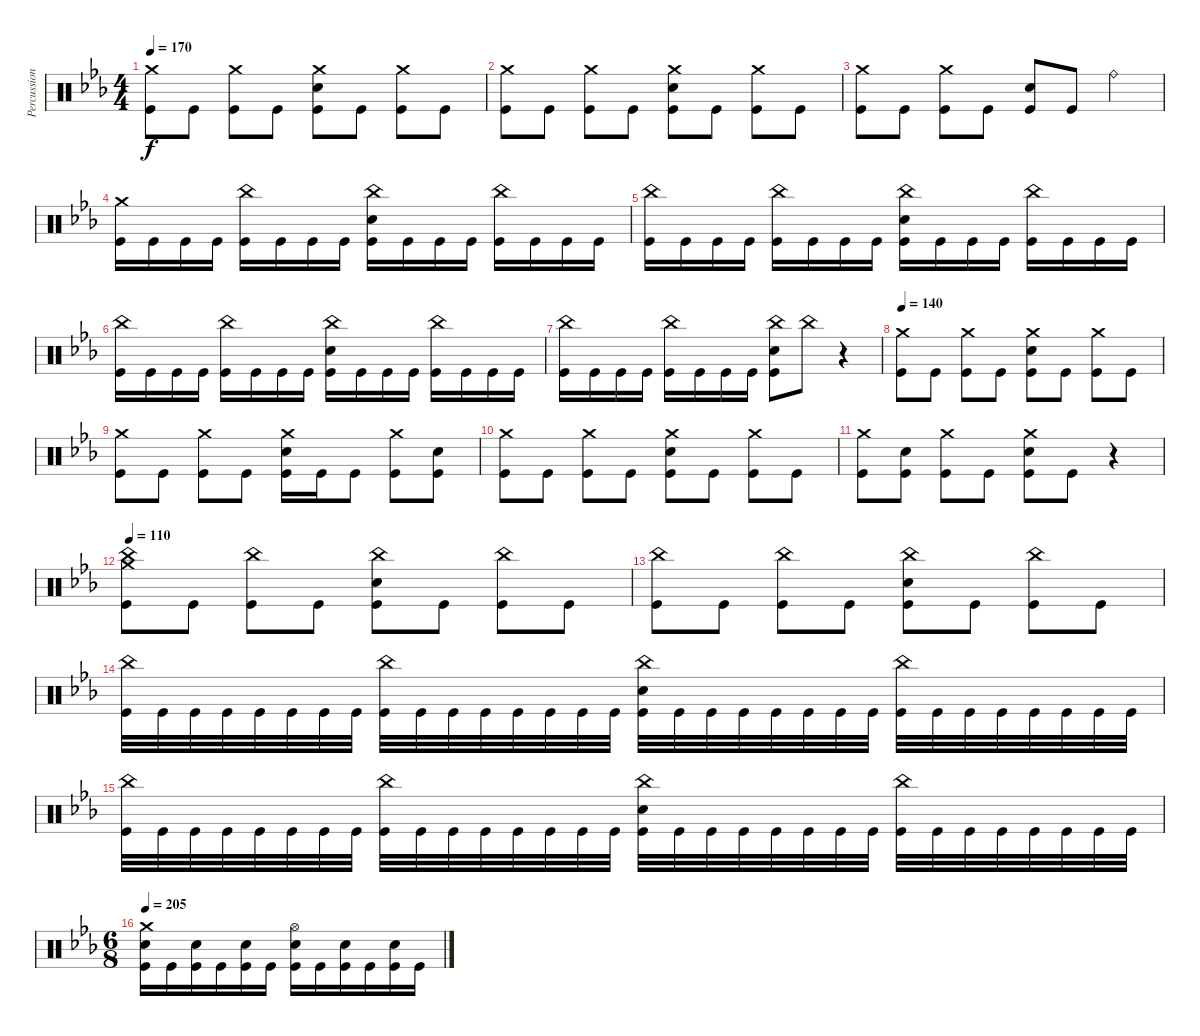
\track ("Percussion" "Percussion") {instrument percussion}
\staff {score}
\articulation defaults
\ts (4 4)
\tempo 170
\clef neutral
\ks eb
("Crash medium (hit)" "Kick (hit)").8{dy f} "Kick (hit)".8 ("Crash medium (hit)" "Kick (hit)").8 "Kick (hit)".8 ("Crash medium (hit)" "Electric Snare (hit)" "Kick (hit)").8 "Kick (hit)".8 ("Crash medium (hit)" "Kick (hit)").8 "Kick (hit)".8 |
("Crash medium (hit)" "Kick (hit)").8 "Kick (hit)".8 ("Crash medium (hit)" "Kick (hit)").8 "Kick (hit)".8 ("Crash medium (hit)" "Electric Snare (hit)" "Kick (hit)").8 "Kick (hit)".8 ("Crash medium (hit)" "Kick (hit)").8 "Kick (hit)".8 |
("Crash medium (hit)" "Kick (hit)").8 "Kick (hit)".8 ("Crash medium (hit)" "Kick (hit)").8 "Kick (hit)".8 ("Electric Snare (hit)" "Kick (hit)").8 "Kick (hit)".8 "Ride (bell)".4 |
("Crash medium (hit)" "Kick (hit)").16 "Kick (hit)".16 "Kick (hit)".16 "Kick (hit)".16 ("China (hit)" "Kick (hit)").16 "Kick (hit)".16 "Kick (hit)".16 "Kick (hit)".16 ("China (hit)" "Electric Snare (hit)" "Kick (hit)").16 "Kick (hit)".16 "Kick (hit)".16 "Kick (hit)".16 ("China (hit)" "Kick (hit)").16 "Kick (hit)".16 "Kick (hit)".16 "Kick (hit)".16 |
("China (hit)" "Kick (hit)").16 "Kick (hit)".16 "Kick (hit)".16 "Kick (hit)".16 ("China (hit)" "Kick (hit)").16 "Kick (hit)".16 "Kick (hit)".16 "Kick (hit)".16 ("China (hit)" "Electric Snare (hit)" "Kick (hit)").16 "Kick (hit)".16 "Kick (hit)".16 "Kick (hit)".16 ("China (hit)" "Kick (hit)").16 "Kick (hit)".16 "Kick (hit)".16 "Kick (hit)".16 |
("China (hit)" "Kick (hit)").16 "Kick (hit)".16 "Kick (hit)".16 "Kick (hit)".16 ("China (hit)" "Kick (hit)").16 "Kick (hit)".16 "Kick (hit)".16 "Kick (hit)".16 ("China (hit)" "Electric Snare (hit)" "Kick (hit)").16 "Kick (hit)".16 "Kick (hit)".16 "Kick (hit)".16 ("China (hit)" "Kick (hit)").16 "Kick (hit)".16 "Kick (hit)".16 "Kick (hit)".16 |
("China (hit)" "Kick (hit)").16 "Kick (hit)".16 "Kick (hit)".16 "Kick (hit)".16 ("China (hit)" "Kick (hit)").16 "Kick (hit)".16 "Kick (hit)".16 "Kick (hit)".16 ("China (hit)" "Electric Snare (hit)" "Kick (hit)").8 "China (hit)".8 r.4 |
\tempo 140
("Crash medium (hit)" "Kick (hit)").8 "Kick (hit)".8 ("Crash medium (hit)" "Kick (hit)").8 "Kick (hit)".8 ("Crash medium (hit)" "Electric Snare (hit)" "Kick (hit)").8 "Kick (hit)".8 ("Crash medium (hit)" "Kick (hit)").8 "Kick (hit)".8 |
("Crash medium (hit)" "Kick (hit)").8 "Kick (hit)".8 ("Crash medium (hit)" "Kick (hit)").8 "Kick (hit)".8 ("Crash medium (hit)" "Electric Snare (hit)" "Kick (hit)").16 "Kick (hit)".16 "Kick (hit)".8 ("Crash medium (hit)" "Kick (hit)").8 ("Electric Snare (hit)" "Kick (hit)").8 |
("Crash medium (hit)" "Kick (hit)").8 "Kick (hit)".8 ("Crash medium (hit)" "Kick (hit)").8 "Kick (hit)".8 ("Crash medium (hit)" "Electric Snare (hit)" "Kick (hit)").8 "Kick (hit)".8 ("Crash medium (hit)" "Kick (hit)").8 "Kick (hit)".8 |
("Crash medium (hit)" "Kick (hit)").8 ("Electric Snare (hit)" "Kick (hit)").8 ("Crash medium (hit)" "Kick (hit)").8 "Kick (hit)".8 ("Crash medium (hit)" "Electric Snare (hit)" "Kick (hit)").8 "Kick (hit)".8 r.4 |
\tempo 110
("Crash medium (hit)" "China (hit)" "Kick (hit)").8 "Kick (hit)".8 ("China (hit)" "Kick (hit)").8 "Kick (hit)".8 ("China (hit)" "Electric Snare (hit)" "Kick (hit)").8 "Kick (hit)".8 ("China (hit)" "Kick (hit)").8 "Kick (hit)".8 |
("China (hit)" "Kick (hit)").8 "Kick (hit)".8 ("China (hit)" "Kick (hit)").8 "Kick (hit)".8 ("China (hit)" "Electric Snare (hit)" "Kick (hit)").8 "Kick (hit)".8 ("China (hit)" "Kick (hit)").8 "Kick (hit)".8 |
("China (hit)" "Kick (hit)").32 "Kick (hit)".32 "Kick (hit)".32 "Kick (hit)".32 "Kick (hit)".32 "Kick (hit)".32 "Kick (hit)".32 "Kick (hit)".32 ("China (hit)" "Kick (hit)").32 "Kick (hit)".32 "Kick (hit)".32 "Kick (hit)".32 "Kick (hit)".32 "Kick (hit)".32 "Kick (hit)".32 "Kick (hit)".32 ("China (hit)" "Electric Snare (hit)" "Kick (hit)").32 "Kick (hit)".32 "Kick (hit)".32 "Kick (hit)".32 "Kick (hit)".32 "Kick (hit)".32 "Kick (hit)".32 "Kick (hit)".32 ("China (hit)" "Kick (hit)").32 "Kick (hit)".32 "Kick (hit)".32 "Kick (hit)".32 "Kick (hit)".32 "Kick (hit)".32 "Kick (hit)".32 "Kick (hit)".32 |
("China (hit)" "Kick (hit)").32 "Kick (hit)".32 "Kick (hit)".32 "Kick (hit)".32 "Kick (hit)".32 "Kick (hit)".32 "Kick (hit)".32 "Kick (hit)".32 ("China (hit)" "Kick (hit)").32 "Kick (hit)".32 "Kick (hit)".32 "Kick (hit)".32 "Kick (hit)".32 "Kick (hit)".32 "Kick (hit)".32 "Kick (hit)".32 ("China (hit)" "Electric Snare (hit)" "Kick (hit)").32 "Kick (hit)".32 "Kick (hit)".32 "Kick (hit)".32 "Kick (hit)".32 "Kick (hit)".32 "Kick (hit)".32 "Kick (hit)".32 ("China (hit)" "Kick (hit)").32 "Kick (hit)".32 "Kick (hit)".32 "Kick (hit)".32 "Kick (hit)".32 "Kick (hit)".32 "Kick (hit)".32 "Kick (hit)".32 |
\ts (6 8)
\tempo 205
("Crash medium (hit)" "Electric Snare (hit)" "Kick (hit)").16 "Kick (hit)".16 ("Electric Snare (hit)" "Kick (hit)").16 "Kick (hit)".16 ("Electric Snare (hit)" "Kick (hit)").16 "Kick (hit)".16 ("Hi-Hat (open)" "Electric Snare (hit)" "Kick (hit)").16 "Kick (hit)".16 ("Electric Snare (hit)" "Kick (hit)").16 "Kick (hit)".16 ("Electric Snare (hit)" "Kick (hit)").16 "Kick (hit)".16
